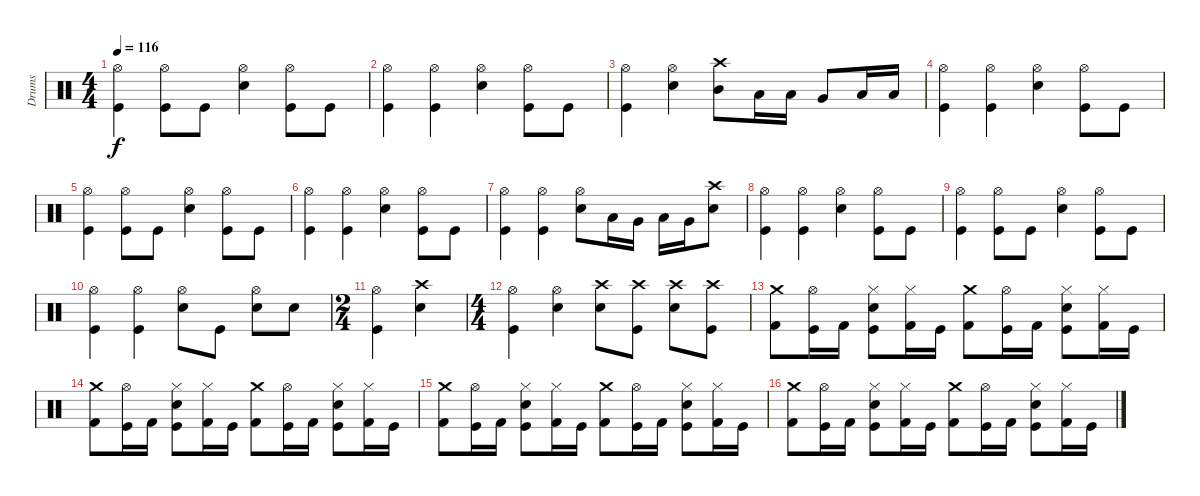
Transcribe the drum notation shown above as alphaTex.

\track ("Drums" "Drums") {instrument percussion}
\staff {score}
\articulation defaults
\ts (4 4)
\tempo 116
\clef neutral
\ks c
("Hi-Hat (open)" "Kick (hit)").4{dy f} ("Hi-Hat (open)" "Kick (hit)").8 "Kick (hit)".8 ("Hi-Hat (open)" "Snare (hit) 2").4 ("Hi-Hat (open)" "Kick (hit)").8 "Kick (hit)".8 |
("Hi-Hat (open)" "Kick (hit)").4 ("Hi-Hat (open)" "Kick (hit)").4 ("Hi-Hat (open)" "Snare (hit) 2").4 ("Hi-Hat (open)" "Kick (hit)").8 "Kick (hit)".8 |
("Hi-Hat (open)" "Kick (hit)").4 ("Hi-Hat (open)" "Snare (hit) 2").4 ("Crash high (hit)" "Mid Tom (hit)").8 "Low Tom (hit)".16 "Low Tom (hit)".16 "Very Low Tom (hit)".8 "Low Tom (hit)".16 "Low Tom (hit)".16 |
("Hi-Hat (open)" "Kick (hit)").4 ("Hi-Hat (open)" "Kick (hit)").4 ("Hi-Hat (open)" "Snare (hit) 2").4 ("Hi-Hat (open)" "Kick (hit)").8 "Kick (hit)".8 |
("Hi-Hat (open)" "Kick (hit)").4 ("Hi-Hat (open)" "Kick (hit)").8 "Kick (hit)".8 ("Hi-Hat (open)" "Snare (hit) 2").4 ("Hi-Hat (open)" "Kick (hit)").8 "Kick (hit)".8 |
("Hi-Hat (open)" "Kick (hit)").4 ("Hi-Hat (open)" "Kick (hit)").4 ("Hi-Hat (open)" "Snare (hit) 2").4 ("Hi-Hat (open)" "Kick (hit)").8 "Kick (hit)".8 |
("Hi-Hat (open)" "Kick (hit)").4 ("Hi-Hat (open)" "Kick (hit)").4 ("Hi-Hat (open)" "Snare (hit) 2").8 "Low Tom (hit)".16 "Very Low Tom (hit)".16 "Low Tom (hit)".16 "Very Low Tom (hit)".16 ("Crash high (hit)" "Snare (hit) 2").8 |
("Hi-Hat (open)" "Kick (hit)").4 ("Hi-Hat (open)" "Kick (hit)").4 ("Hi-Hat (open)" "Snare (hit) 2").4 ("Hi-Hat (open)" "Kick (hit)").8 "Kick (hit)".8 |
("Hi-Hat (open)" "Kick (hit)").4 ("Hi-Hat (open)" "Kick (hit)").8 "Kick (hit)".8 ("Hi-Hat (open)" "Snare (hit) 2").4 ("Hi-Hat (open)" "Kick (hit)").8 "Kick (hit)".8 |
("Hi-Hat (open)" "Kick (hit)").4 ("Hi-Hat (open)" "Kick (hit)").4 ("Hi-Hat (open)" "Snare (hit) 2").8 "Kick (hit)".8 ("Hi-Hat (open)" "Snare (hit) 2").8 "Snare (hit) 2".8 |
\ts (2 4)
("Hi-Hat (open)" "Kick (hit)").4 ("Crash high (hit)" "Snare (hit) 2").4 |
\ts (4 4)
("Hi-Hat (open)" "Kick (hit)").4 ("Hi-Hat (open)" "Snare (hit) 2").4 ("Crash high (hit)" "Snare (hit) 2").8 ("Crash high (hit)" "Kick (hit)").8 ("Crash high (hit)" "Snare (hit) 2").8 ("Crash high (hit)" "Kick (hit)").8 |
("Crash medium (hit)" "Kick (hit) 2").8 ("Hi-Hat (open)" "Kick (hit)").16 "Kick (hit) 2".16 ("Hi-Hat (closed)" "Snare (hit) 2" "Kick (hit)").8 ("Hi-Hat (closed)" "Kick (hit) 2").16 "Kick (hit)".16 ("Crash medium (hit)" "Kick (hit) 2").8 ("Hi-Hat (open)" "Kick (hit)").16 "Kick (hit) 2".16 ("Hi-Hat (closed)" "Snare (hit) 2" "Kick (hit)").8 ("Hi-Hat (closed)" "Kick (hit) 2").16 "Kick (hit)".16 |
("Crash medium (hit)" "Kick (hit) 2").8 ("Hi-Hat (open)" "Kick (hit)").16 "Kick (hit) 2".16 ("Hi-Hat (closed)" "Snare (hit) 2" "Kick (hit)").8 ("Hi-Hat (closed)" "Kick (hit) 2").16 "Kick (hit)".16 ("Crash medium (hit)" "Kick (hit) 2").8 ("Hi-Hat (open)" "Kick (hit)").16 "Kick (hit) 2".16 ("Hi-Hat (closed)" "Snare (hit) 2" "Kick (hit)").8 ("Hi-Hat (closed)" "Kick (hit) 2").16 "Kick (hit)".16 |
("Crash medium (hit)" "Kick (hit) 2").8 ("Hi-Hat (open)" "Kick (hit)").16 "Kick (hit) 2".16 ("Hi-Hat (closed)" "Snare (hit) 2" "Kick (hit)").8 ("Hi-Hat (closed)" "Kick (hit) 2").16 "Kick (hit)".16 ("Crash medium (hit)" "Kick (hit) 2").8 ("Hi-Hat (open)" "Kick (hit)").16 "Kick (hit) 2".16 ("Hi-Hat (closed)" "Snare (hit) 2" "Kick (hit)").8 ("Hi-Hat (closed)" "Kick (hit) 2").16 "Kick (hit)".16 |
("Crash medium (hit)" "Kick (hit) 2").8 ("Hi-Hat (open)" "Kick (hit)").16 "Kick (hit) 2".16 ("Hi-Hat (closed)" "Snare (hit) 2" "Kick (hit)").8 ("Hi-Hat (closed)" "Kick (hit) 2").16 "Kick (hit)".16 ("Crash medium (hit)" "Kick (hit) 2").8 ("Hi-Hat (open)" "Kick (hit)").16 "Kick (hit) 2".16 ("Hi-Hat (closed)" "Snare (hit) 2" "Kick (hit)").8 ("Hi-Hat (closed)" "Kick (hit) 2").16 "Kick (hit)".16
